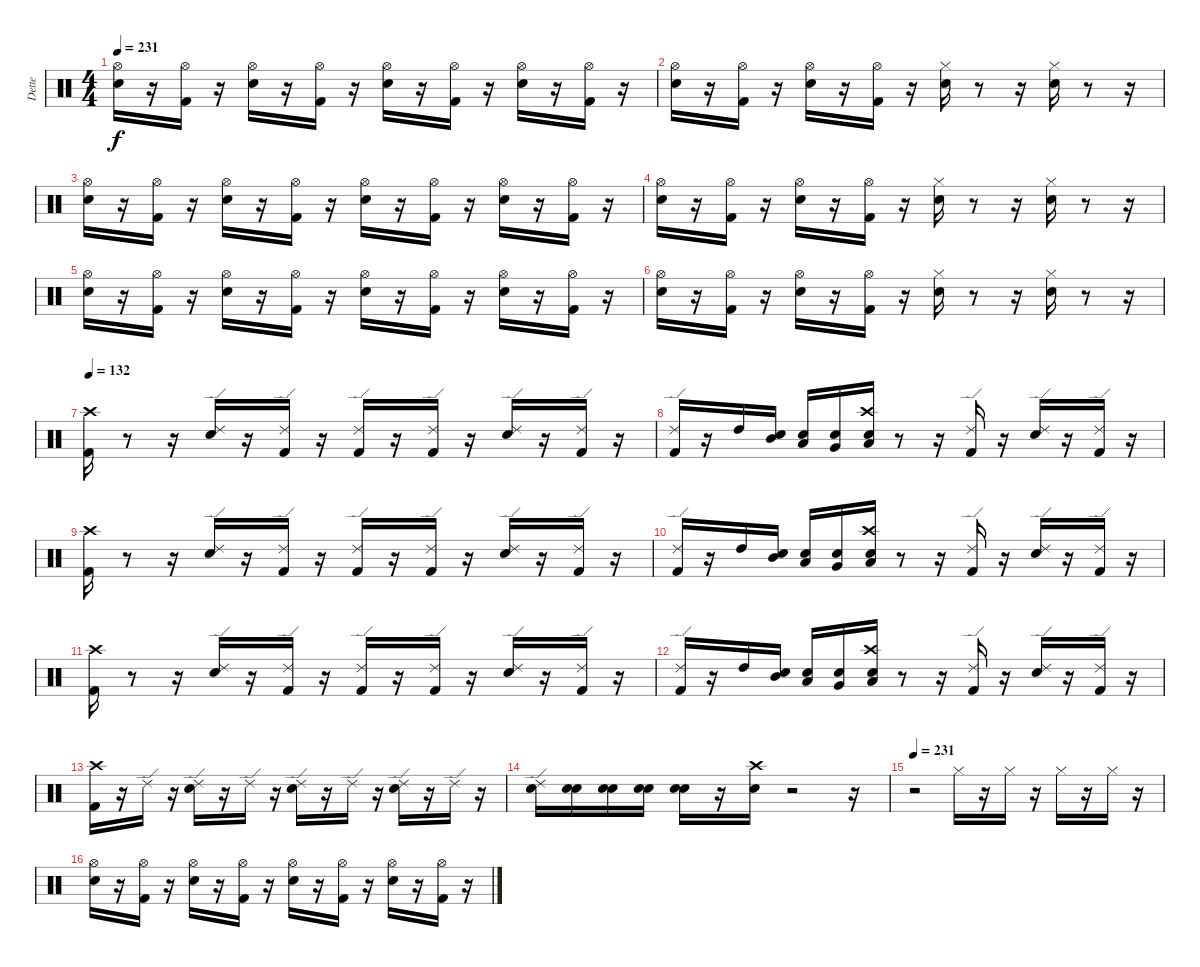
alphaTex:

\track ("Dette" "Dette") {instrument percussion}
\staff {score}
\articulation defaults
\ts (4 4)
\tempo 231
\clef neutral
\ks c
("Snare (hit) 2" "Hi-Hat (open)").16{dy f} r.16 ("Kick (hit) 2" "Hi-Hat (open)").16 r.16 ("Snare (hit) 2" "Hi-Hat (open)").16 r.16 ("Kick (hit) 2" "Hi-Hat (open)").16 r.16 ("Snare (hit) 2" "Hi-Hat (open)").16 r.16 ("Kick (hit) 2" "Hi-Hat (open)").16 r.16 ("Snare (hit) 2" "Hi-Hat (open)").16 r.16 ("Kick (hit) 2" "Hi-Hat (open)").16 r.16 |
("Snare (hit) 2" "Hi-Hat (open)").16 r.16 ("Kick (hit) 2" "Hi-Hat (open)").16 r.16 ("Snare (hit) 2" "Hi-Hat (open)").16 r.16 ("Kick (hit) 2" "Hi-Hat (open)").16 r.16 ("Snare (hit) 2" "Hi-Hat (closed)").16 r.8 r.16 ("Snare (hit) 2" "Hi-Hat (closed)").16 r.8 r.16 |
("Snare (hit) 2" "Hi-Hat (open)").16 r.16 ("Kick (hit) 2" "Hi-Hat (open)").16 r.16 ("Snare (hit) 2" "Hi-Hat (open)").16 r.16 ("Kick (hit) 2" "Hi-Hat (open)").16 r.16 ("Snare (hit) 2" "Hi-Hat (open)").16 r.16 ("Kick (hit) 2" "Hi-Hat (open)").16 r.16 ("Snare (hit) 2" "Hi-Hat (open)").16 r.16 ("Kick (hit) 2" "Hi-Hat (open)").16 r.16 |
("Snare (hit) 2" "Hi-Hat (open)").16 r.16 ("Kick (hit) 2" "Hi-Hat (open)").16 r.16 ("Snare (hit) 2" "Hi-Hat (open)").16 r.16 ("Kick (hit) 2" "Hi-Hat (open)").16 r.16 ("Snare (hit) 2" "Hi-Hat (closed)").16 r.8 r.16 ("Snare (hit) 2" "Hi-Hat (closed)").16 r.8 r.16 |
("Snare (hit) 2" "Hi-Hat (open)").16 r.16 ("Kick (hit) 2" "Hi-Hat (open)").16 r.16 ("Snare (hit) 2" "Hi-Hat (open)").16 r.16 ("Kick (hit) 2" "Hi-Hat (open)").16 r.16 ("Snare (hit) 2" "Hi-Hat (open)").16 r.16 ("Kick (hit) 2" "Hi-Hat (open)").16 r.16 ("Snare (hit) 2" "Hi-Hat (open)").16 r.16 ("Kick (hit) 2" "Hi-Hat (open)").16 r.16 |
("Snare (hit) 2" "Hi-Hat (open)").16 r.16 ("Kick (hit) 2" "Hi-Hat (open)").16 r.16 ("Snare (hit) 2" "Hi-Hat (open)").16 r.16 ("Kick (hit) 2" "Hi-Hat (open)").16 r.16 ("Snare (hit) 2" "Hi-Hat (closed)").16 r.8 r.16 ("Snare (hit) 2" "Hi-Hat (closed)").16 r.8 r.16 |
\tempo 132
("Kick (hit) 2" "Crash high (hit)").16 r.8 r.16 ("Snare (hit) 2" "Ride (edge) 2").16 r.16 ("Kick (hit) 2" "Ride (edge) 2").16 r.16 ("Kick (hit) 2" "Ride (edge) 2").16 r.16 ("Kick (hit) 2" "Ride (edge) 2").16 r.16 ("Snare (hit) 2" "Ride (edge) 2").16 r.16 ("Kick (hit) 2" "Ride (edge) 2").16 r.16 |
("Kick (hit) 2" "Ride (edge) 2").16 r.16 "High Tom (hit)".16 ("Snare (hit)" "Mid Tom (hit)").16 ("Snare (hit)" "Low Tom (hit)").16 ("Snare (hit)" "Very Low Tom (hit)").16 ("Snare (hit)" "Low Floor Tom (hit)" "Crash high (hit)").16 r.8 r.16 ("Kick (hit) 2" "Ride (edge) 2").16 r.16 ("Snare (hit) 2" "Ride (edge) 2").16 r.16 ("Kick (hit) 2" "Ride (edge) 2").16 r.16 |
("Kick (hit) 2" "Crash high (hit)").16 r.8 r.16 ("Snare (hit) 2" "Ride (edge) 2").16 r.16 ("Kick (hit) 2" "Ride (edge) 2").16 r.16 ("Kick (hit) 2" "Ride (edge) 2").16 r.16 ("Kick (hit) 2" "Ride (edge) 2").16 r.16 ("Snare (hit) 2" "Ride (edge) 2").16 r.16 ("Kick (hit) 2" "Ride (edge) 2").16 r.16 |
("Kick (hit) 2" "Ride (edge) 2").16 r.16 "High Tom (hit)".16 ("Snare (hit)" "Mid Tom (hit)").16 ("Snare (hit)" "Low Tom (hit)").16 ("Snare (hit)" "Very Low Tom (hit)").16 ("Snare (hit)" "Low Floor Tom (hit)" "Crash high (hit)").16 r.8 r.16 ("Kick (hit) 2" "Ride (edge) 2").16 r.16 ("Snare (hit) 2" "Ride (edge) 2").16 r.16 ("Kick (hit) 2" "Ride (edge) 2").16 r.16 |
("Kick (hit) 2" "Crash high (hit)").16 r.8 r.16 ("Snare (hit) 2" "Ride (edge) 2").16 r.16 ("Kick (hit) 2" "Ride (edge) 2").16 r.16 ("Kick (hit) 2" "Ride (edge) 2").16 r.16 ("Kick (hit) 2" "Ride (edge) 2").16 r.16 ("Snare (hit) 2" "Ride (edge) 2").16 r.16 ("Kick (hit) 2" "Ride (edge) 2").16 r.16 |
("Kick (hit) 2" "Ride (edge) 2").16 r.16 "High Tom (hit)".16 ("Snare (hit)" "Mid Tom (hit)").16 ("Snare (hit)" "Low Tom (hit)").16 ("Snare (hit)" "Very Low Tom (hit)").16 ("Snare (hit)" "Low Floor Tom (hit)" "Crash high (hit)").16 r.8 r.16 ("Kick (hit) 2" "Ride (edge) 2").16 r.16 ("Snare (hit) 2" "Ride (edge) 2").16 r.16 ("Kick (hit) 2" "Ride (edge) 2").16 r.16 |
("Kick (hit) 2" "Crash high (hit)").16 r.16 "Ride (edge) 2".16 r.16 ("Snare (hit) 2" "Ride (edge) 2").16 r.16 "Ride (edge) 2".16 r.16 ("Snare (hit) 2" "Ride (edge) 2").16 r.16 "Ride (edge) 2".16 r.16 ("Snare (hit) 2" "Ride (edge) 2").16 r.16 "Ride (edge) 2".16 r.16 |
("Snare (hit) 2" "Ride (edge) 2").16 ("Snare (hit)" "Snare (hit) 2").16 ("Snare (hit)" "Snare (hit) 2").16 ("Snare (hit)" "Snare (hit) 2").16 ("Snare (hit)" "Snare (hit) 2").16 r.16 ("Snare (hit) 2" "Crash high (hit)").16 r.2 r.16 |
\tempo 231
r.2 "Hi-Hat (closed)".16 r.16 "Hi-Hat (closed)".16 r.16 "Hi-Hat (closed)".16 r.16 "Hi-Hat (closed)".16 r.16 |
("Snare (hit) 2" "Hi-Hat (open)").16 r.16 ("Kick (hit) 2" "Hi-Hat (open)").16 r.16 ("Snare (hit) 2" "Hi-Hat (open)").16 r.16 ("Kick (hit) 2" "Hi-Hat (open)").16 r.16 ("Snare (hit) 2" "Hi-Hat (open)").16 r.16 ("Kick (hit) 2" "Hi-Hat (open)").16 r.16 ("Snare (hit) 2" "Hi-Hat (open)").16 r.16 ("Kick (hit) 2" "Hi-Hat (open)").16 r.16
